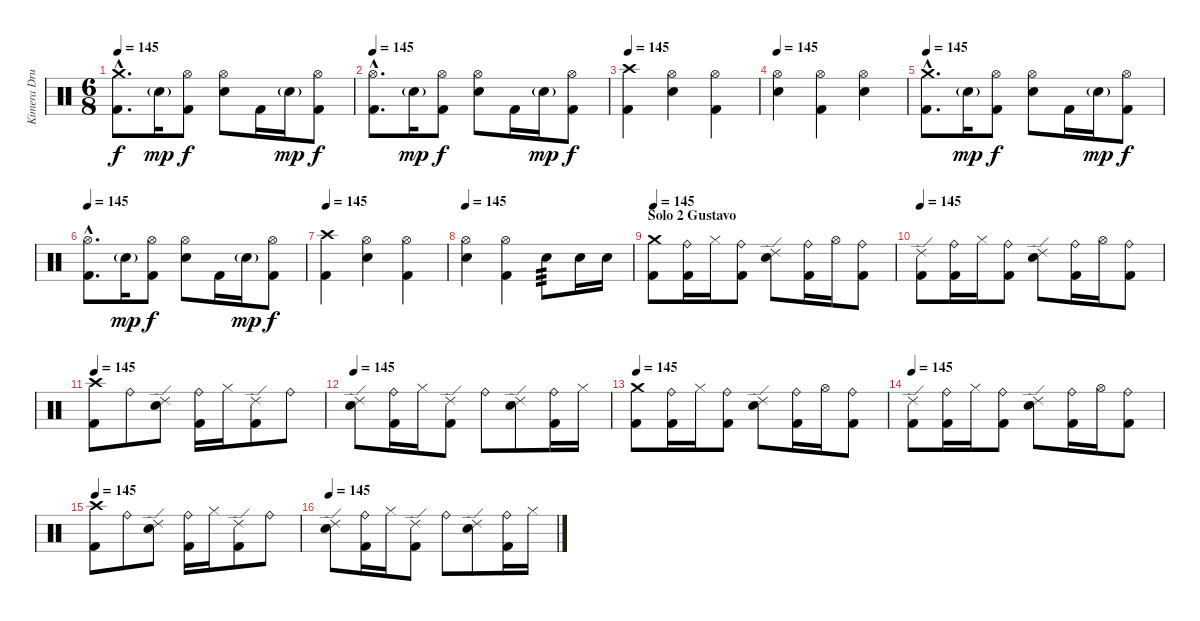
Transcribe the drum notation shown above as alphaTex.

\track ("Kimera Drummer" "Kimera Dru") {instrument percussion}
\staff {score}
\articulation defaults
\ts (6 8)
\tempo 145
\clef neutral
\ks c
("Crash medium (hit)"{hac} "Kick (hit) 2"{hac}).8{d dy f} "Electric Snare (hit)"{g}.16{dy mp} ("Hi-Hat (open)" "Kick (hit) 2").8{dy f} ("Hi-Hat (open)" "Electric Snare (hit)").8 "Kick (hit) 2".16 "Electric Snare (hit)"{g}.16{dy mp} ("Hi-Hat (open)" "Kick (hit) 2").8{dy f} |
\tempo 145
("Hi-Hat (open)"{hac} "Kick (hit) 2"{hac}).8{d} "Electric Snare (hit)"{g}.16{dy mp} ("Hi-Hat (open)" "Kick (hit) 2").8{dy f} ("Hi-Hat (open)" "Electric Snare (hit)").8 "Kick (hit) 2".16 "Electric Snare (hit)"{g}.16{dy mp} ("Hi-Hat (open)" "Kick (hit) 2").8{dy f} |
\tempo 145
("Crash high (hit)" "Kick (hit) 2").4 ("Hi-Hat (open)" "Electric Snare (hit)").4 ("Hi-Hat (open)" "Kick (hit) 2").4 |
\tempo 145
("Hi-Hat (open)" "Electric Snare (hit)").4 ("Hi-Hat (open)" "Kick (hit) 2").4 ("Hi-Hat (open)" "Electric Snare (hit)").4 |
\tempo 145
("Crash medium (hit)"{hac} "Kick (hit) 2"{hac}).8{d} "Electric Snare (hit)"{g}.16{dy mp} ("Hi-Hat (open)" "Kick (hit) 2").8{dy f} ("Hi-Hat (open)" "Electric Snare (hit)").8 "Kick (hit) 2".16 "Electric Snare (hit)"{g}.16{dy mp} ("Hi-Hat (open)" "Kick (hit) 2").8{dy f} |
\tempo 145
("Hi-Hat (open)"{hac} "Kick (hit) 2"{hac}).8{d} "Electric Snare (hit)"{g}.16{dy mp} ("Hi-Hat (open)" "Kick (hit) 2").8{dy f} ("Hi-Hat (open)" "Electric Snare (hit)").8 "Kick (hit) 2".16 "Electric Snare (hit)"{g}.16{dy mp} ("Hi-Hat (open)" "Kick (hit) 2").8{dy f} |
\tempo 145
("Crash high (hit)" "Kick (hit) 2").4 ("Hi-Hat (open)" "Electric Snare (hit)").4 ("Hi-Hat (open)" "Kick (hit) 2").4 |
\tempo 145
("Hi-Hat (open)" "Electric Snare (hit)").4 ("Hi-Hat (open)" "Kick (hit) 2").4 "Electric Snare (hit)".8{tp 3} "Electric Snare (hit)".16 "Electric Snare (hit)".16 |
\section ("" "Solo 2 Gustavo")
\tempo 145
("Crash medium (hit)" "Kick (hit) 2").8 ("Ride (bell)" "Kick (hit) 2").16 "Hi-Hat (closed)".16 ("Ride (bell)" "Kick (hit) 2").8 ("Ride (edge) 2" "Electric Snare (hit)").8 ("Ride (bell)" "Kick (hit) 2").16 "Hi-Hat (open)".16 ("Ride (bell)" "Kick (hit) 2").8 |
\tempo 145
("Ride (edge) 2" "Kick (hit) 2").8 ("Ride (bell)" "Kick (hit) 2").16 "Hi-Hat (closed)".16 ("Ride (bell)" "Kick (hit) 2").8 ("Ride (edge) 2" "Electric Snare (hit)").8 ("Ride (bell)" "Kick (hit) 2").16 "Hi-Hat (open)".16 ("Ride (bell)" "Kick (hit) 2").8 |
\tempo 145
("Crash high (hit)" "Kick (hit) 2").8 "Ride (bell)".8 ("Ride (edge) 2" "Electric Snare (hit)").8 ("Ride (bell)" "Kick (hit) 2").16 "Hi-Hat (closed)".16 ("Ride (edge) 2" "Kick (hit) 2").8 "Ride (bell)".8 |
\tempo 145
("Ride (edge) 2" "Electric Snare (hit)").8 ("Ride (bell)" "Kick (hit) 2").16 "Hi-Hat (closed)".16 ("Ride (edge) 2" "Kick (hit) 2").8 "Ride (bell)".8 ("Ride (edge) 2" "Electric Snare (hit)").8 ("Ride (bell)" "Kick (hit) 2").16 "Hi-Hat (closed)".16 |
\tempo 145
("Crash medium (hit)" "Kick (hit) 2").8 ("Ride (bell)" "Kick (hit) 2").16 "Hi-Hat (closed)".16 ("Ride (bell)" "Kick (hit) 2").8 ("Ride (edge) 2" "Electric Snare (hit)").8 ("Ride (bell)" "Kick (hit) 2").16 "Hi-Hat (open)".16 ("Ride (bell)" "Kick (hit) 2").8 |
\tempo 145
("Ride (edge) 2" "Kick (hit) 2").8 ("Ride (bell)" "Kick (hit) 2").16 "Hi-Hat (closed)".16 ("Ride (bell)" "Kick (hit) 2").8 ("Ride (edge) 2" "Electric Snare (hit)").8 ("Ride (bell)" "Kick (hit) 2").16 "Hi-Hat (open)".16 ("Ride (bell)" "Kick (hit) 2").8 |
\tempo 145
("Crash high (hit)" "Kick (hit) 2").8 "Ride (bell)".8 ("Ride (edge) 2" "Electric Snare (hit)").8 ("Ride (bell)" "Kick (hit) 2").16 "Hi-Hat (closed)".16 ("Ride (edge) 2" "Kick (hit) 2").8 "Ride (bell)".8 |
\tempo 145
("Ride (edge) 2" "Electric Snare (hit)").8 ("Ride (bell)" "Kick (hit) 2").16 "Hi-Hat (closed)".16 ("Ride (edge) 2" "Kick (hit) 2").8 "Ride (bell)".8 ("Ride (edge) 2" "Electric Snare (hit)").8 ("Ride (bell)" "Kick (hit) 2").16 "Hi-Hat (closed)".16
